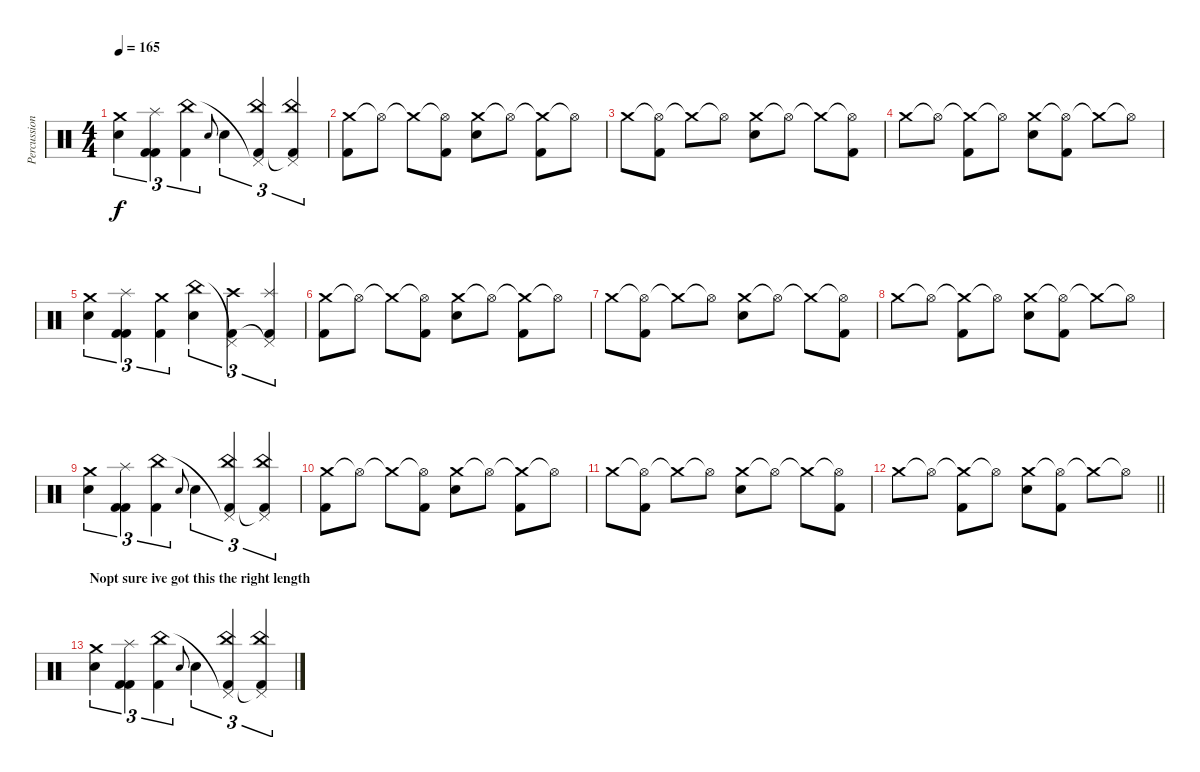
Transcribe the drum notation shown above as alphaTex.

\track ("Percussion" "Percussion") {instrument percussion}
\staff {score}
\articulation defaults
\ts (4 4)
\tempo 165
\clef neutral
\ks c
("Crash medium (hit)" "Electric Snare (hit)").4{tu (3 2) dy f} ("Kick (hit) 2" "Splash (hit)" "Kick (hit) 2").4{tu (3 2)} ("Kick (hit) 2" "China (hit)").4{tu (3 2)} "Electric Snare (hit)".8{gr onbeat} "Electric Snare (hit)".4{tu (3 2)} ("Kick (hit) 2" "Pedal Hi-Hat (hit)"{t} "China (hit)").4{tu (3 2)} ("Pedal Hi-Hat (hit)"{t} "China (hit)" "Kick (hit) 2").4{tu (3 2)} |
("Crash medium (hit)" "Kick (hit) 2").8 "Hi-Hat (open)"{t}.8 "Crash medium (hit)"{t}.8 ("Hi-Hat (open)"{t} "Kick (hit) 2").8 ("Crash medium (hit)" "Electric Snare (hit)").8 "Hi-Hat (open)"{t}.8 ("Crash medium (hit)"{t} "Kick (hit) 2").8 "Hi-Hat (open)"{t}.8 |
"Crash medium (hit)".8 ("Hi-Hat (open)"{t} "Kick (hit) 2").8 "Crash medium (hit)"{t}.8 "Hi-Hat (open)"{t}.8 ("Crash medium (hit)" "Electric Snare (hit)").8 "Hi-Hat (open)"{t}.8 "Crash medium (hit)"{t}.8 ("Hi-Hat (open)"{t} "Kick (hit) 2").8 |
"Crash medium (hit)".8 "Hi-Hat (open)"{t}.8 ("Crash medium (hit)"{t} "Kick (hit) 2").8 "Hi-Hat (open)"{t}.8 ("Crash medium (hit)" "Electric Snare (hit)").8 ("Hi-Hat (open)"{t} "Kick (hit) 2").8 "Crash medium (hit)"{t}.8 "Hi-Hat (open)"{t}.8 |
("Crash medium (hit)" "Electric Snare (hit)").4{tu (3 2)} ("Kick (hit) 2" "Splash (hit)" "Kick (hit) 2").4{tu (3 2)} ("Kick (hit) 2" "Crash medium (hit)").4{tu (3 2)} ("Electric Snare (hit)" "China (hit)").4{tu (3 2)} ("Kick (hit) 2" "Pedal Hi-Hat (hit)"{t} "Crash high (hit)").4{tu (3 2)} ("Pedal Hi-Hat (hit)"{t} "Splash (hit)" "Kick (hit) 2").4{tu (3 2)} |
("Crash medium (hit)" "Kick (hit) 2").8 "Hi-Hat (open)"{t}.8 "Crash medium (hit)"{t}.8 ("Hi-Hat (open)"{t} "Kick (hit) 2").8 ("Crash medium (hit)" "Electric Snare (hit)").8 "Hi-Hat (open)"{t}.8 ("Crash medium (hit)"{t} "Kick (hit) 2").8 "Hi-Hat (open)"{t}.8 |
"Crash medium (hit)".8 ("Hi-Hat (open)"{t} "Kick (hit) 2").8 "Crash medium (hit)"{t}.8 "Hi-Hat (open)"{t}.8 ("Crash medium (hit)" "Electric Snare (hit)").8 "Hi-Hat (open)"{t}.8 "Crash medium (hit)"{t}.8 ("Hi-Hat (open)"{t} "Kick (hit) 2").8 |
"Crash medium (hit)".8 "Hi-Hat (open)"{t}.8 ("Crash medium (hit)"{t} "Kick (hit) 2").8 "Hi-Hat (open)"{t}.8 ("Crash medium (hit)" "Electric Snare (hit)").8 ("Hi-Hat (open)"{t} "Kick (hit) 2").8 "Crash medium (hit)"{t}.8 "Hi-Hat (open)"{t}.8 |
("Crash medium (hit)" "Electric Snare (hit)").4{tu (3 2)} ("Kick (hit) 2" "Splash (hit)" "Kick (hit) 2").4{tu (3 2)} ("Kick (hit) 2" "China (hit)").4{tu (3 2)} "Electric Snare (hit)".8{gr onbeat} "Electric Snare (hit)".4{tu (3 2)} ("Kick (hit) 2" "Pedal Hi-Hat (hit)"{t} "China (hit)").4{tu (3 2)} ("Pedal Hi-Hat (hit)"{t} "China (hit)" "Kick (hit) 2").4{tu (3 2)} |
("Crash medium (hit)" "Kick (hit) 2").8 "Hi-Hat (open)"{t}.8 "Crash medium (hit)"{t}.8 ("Hi-Hat (open)"{t} "Kick (hit) 2").8 ("Crash medium (hit)" "Electric Snare (hit)").8 "Hi-Hat (open)"{t}.8 ("Crash medium (hit)"{t} "Kick (hit) 2").8 "Hi-Hat (open)"{t}.8 |
"Crash medium (hit)".8 ("Hi-Hat (open)"{t} "Kick (hit) 2").8 "Crash medium (hit)"{t}.8 "Hi-Hat (open)"{t}.8 ("Crash medium (hit)" "Electric Snare (hit)").8 "Hi-Hat (open)"{t}.8 "Crash medium (hit)"{t}.8 ("Hi-Hat (open)"{t} "Kick (hit) 2").8 |
\barLineRight lightlight "Crash medium (hit)".8 "Hi-Hat (open)"{t}.8
("Crash medium (hit)"{t} "Kick (hit) 2").8 "Hi-Hat (open)"{t}.8 ("Crash medium (hit)" "Electric Snare (hit)").8 ("Hi-Hat (open)"{t} "Kick (hit) 2").8 "Crash medium (hit)"{t}.8 "Hi-Hat (open)"{t}.8 |
\section ("" "Nopt sure ive got this the right length")
("Crash medium (hit)" "Electric Snare (hit)").4{tu (3 2)} ("Kick (hit) 2" "Splash (hit)" "Kick (hit) 2").4{tu (3 2)} ("Kick (hit) 2" "China (hit)").4{tu (3 2)} "Electric Snare (hit)".8{gr onbeat} "Electric Snare (hit)".4{tu (3 2)} ("Kick (hit) 2" "Pedal Hi-Hat (hit)"{t} "China (hit)").4{tu (3 2)} ("Pedal Hi-Hat (hit)"{t} "China (hit)" "Kick (hit) 2").4{tu (3 2)}
